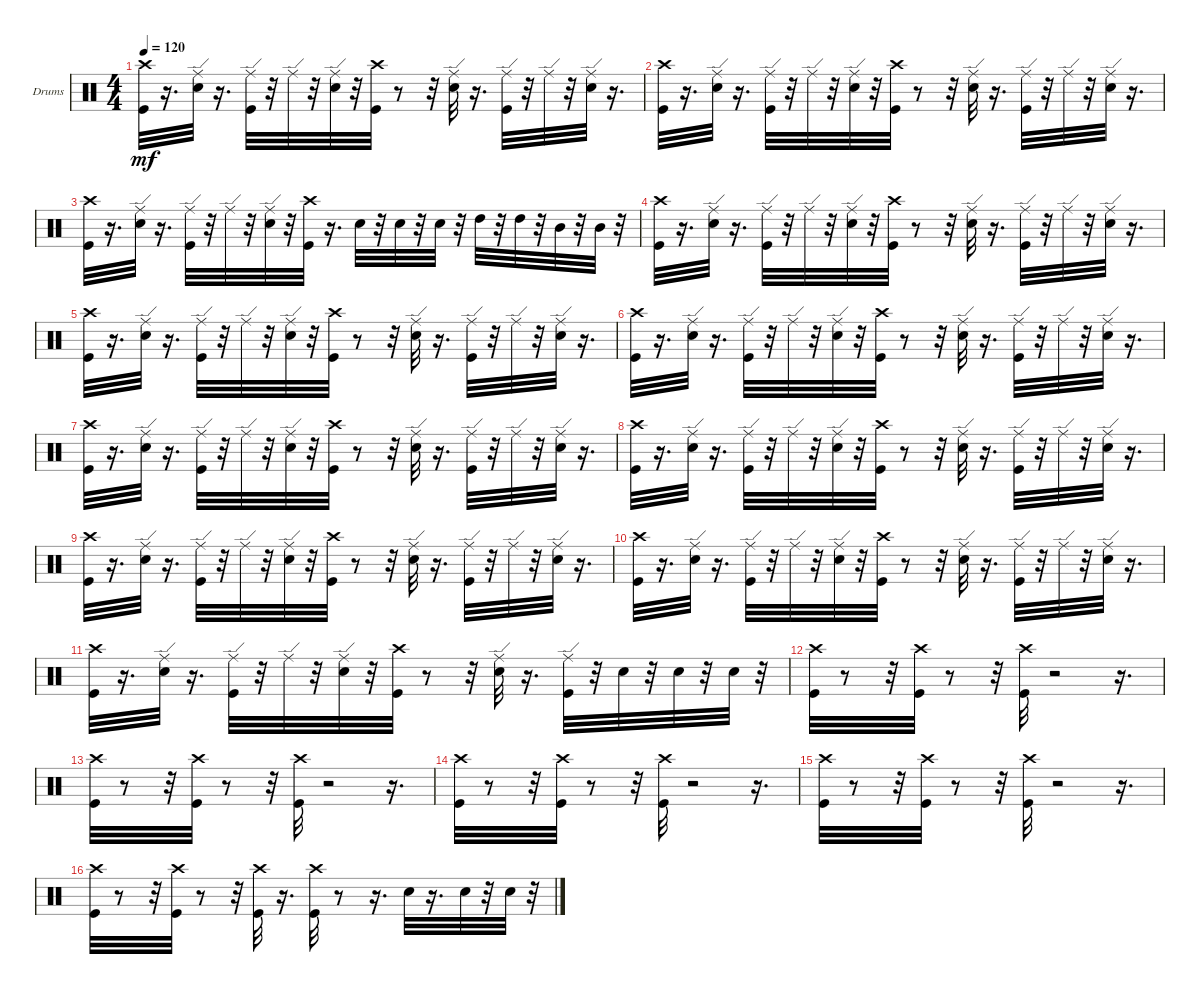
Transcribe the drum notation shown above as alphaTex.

\bracketExtendMode groupsimilarinstruments
\firstSystemTrackNameOrientation horizontal
\otherSystemsTrackNameOrientation horizontal
\track ("" "Drums") {instrument percussion}
\staff {score}
\articulation defaults
\ts (4 4)
\tempo 120
\clef neutral
\ks c
("Crash high (hit)" "Kick (hit)").32{dy mf} r.16{d} ("Snare (hit) 2" "Ride (edge)").32 r.16{d} ("Kick (hit)" "Ride (edge)").32 r.32 "Ride (edge)".32 r.32 ("Ride (edge)" "Snare (hit) 2").32 r.32 ("Crash high (hit)" "Kick (hit)").32 r.8 r.32 ("Snare (hit) 2" "Ride (edge)").32 r.16{d} ("Kick (hit)" "Ride (edge)").32 r.32 "Ride (edge)".32 r.32 ("Snare (hit) 2" "Ride (edge)").32 r.16{d} |
("Crash high (hit)" "Kick (hit)").32 r.16{d} ("Snare (hit) 2" "Ride (edge)").32 r.16{d} ("Kick (hit)" "Ride (edge)").32 r.32 "Ride (edge)".32 r.32 ("Ride (edge)" "Snare (hit) 2").32 r.32 ("Crash high (hit)" "Kick (hit)").32 r.8 r.32 ("Snare (hit) 2" "Ride (edge)").32 r.16{d} ("Kick (hit)" "Ride (edge)").32 r.32 "Ride (edge)".32 r.32 ("Snare (hit) 2" "Ride (edge)").32 r.16{d} |
("Crash high (hit)" "Kick (hit)").32 r.16{d} ("Snare (hit) 2" "Ride (edge)").32 r.16{d} ("Kick (hit)" "Ride (edge)").32 r.32 "Ride (edge)".32 r.32 ("Ride (edge)" "Snare (hit) 2").32 r.32 ("Crash high (hit)" "Kick (hit)").32 r.16{d} "Snare (hit) 2".32 r.32 "Snare (hit) 2".32 r.32 "Snare (hit) 2".32 r.32 "High Tom (hit)".32 r.32 "High Tom (hit)".32 r.32 "Mid Tom (hit)".32 r.32 "Mid Tom (hit)".32 r.32 |
("Crash high (hit)" "Kick (hit)").32 r.16{d} ("Snare (hit) 2" "Ride (edge)").32 r.16{d} ("Kick (hit)" "Ride (edge)").32 r.32 "Ride (edge)".32 r.32 ("Ride (edge)" "Snare (hit) 2").32 r.32 ("Crash high (hit)" "Kick (hit)").32 r.8 r.32 ("Snare (hit) 2" "Ride (edge)").32 r.16{d} ("Kick (hit)" "Ride (edge)").32 r.32 "Ride (edge)".32 r.32 ("Snare (hit) 2" "Ride (edge)").32 r.16{d} |
("Crash high (hit)" "Kick (hit)").32 r.16{d} ("Snare (hit) 2" "Ride (edge)").32 r.16{d} ("Kick (hit)" "Ride (edge)").32 r.32 "Ride (edge)".32 r.32 ("Ride (edge)" "Snare (hit) 2").32 r.32 ("Crash high (hit)" "Kick (hit)").32 r.8 r.32 ("Snare (hit) 2" "Ride (edge)").32 r.16{d} ("Kick (hit)" "Ride (edge)").32 r.32 "Ride (edge)".32 r.32 ("Snare (hit) 2" "Ride (edge)").32 r.16{d} |
("Crash high (hit)" "Kick (hit)").32 r.16{d} ("Snare (hit) 2" "Ride (edge)").32 r.16{d} ("Kick (hit)" "Ride (edge)").32 r.32 "Ride (edge)".32 r.32 ("Ride (edge)" "Snare (hit) 2").32 r.32 ("Crash high (hit)" "Kick (hit)").32 r.8 r.32 ("Snare (hit) 2" "Ride (edge)").32 r.16{d} ("Kick (hit)" "Ride (edge)").32 r.32 "Ride (edge)".32 r.32 ("Snare (hit) 2" "Ride (edge)").32 r.16{d} |
("Crash high (hit)" "Kick (hit)").32 r.16{d} ("Snare (hit) 2" "Ride (edge)").32 r.16{d} ("Kick (hit)" "Ride (edge)").32 r.32 "Ride (edge)".32 r.32 ("Ride (edge)" "Snare (hit) 2").32 r.32 ("Crash high (hit)" "Kick (hit)").32 r.8 r.32 ("Snare (hit) 2" "Ride (edge)").32 r.16{d} ("Kick (hit)" "Ride (edge)").32 r.32 "Ride (edge)".32 r.32 ("Snare (hit) 2" "Ride (edge)").32 r.16{d} |
("Crash high (hit)" "Kick (hit)").32 r.16{d} ("Snare (hit) 2" "Ride (edge)").32 r.16{d} ("Kick (hit)" "Ride (edge)").32 r.32 "Ride (edge)".32 r.32 ("Ride (edge)" "Snare (hit) 2").32 r.32 ("Crash high (hit)" "Kick (hit)").32 r.8 r.32 ("Snare (hit) 2" "Ride (edge)").32 r.16{d} ("Kick (hit)" "Ride (edge)").32 r.32 "Ride (edge)".32 r.32 ("Snare (hit) 2" "Ride (edge)").32 r.16{d} |
("Crash high (hit)" "Kick (hit)").32 r.16{d} ("Snare (hit) 2" "Ride (edge)").32 r.16{d} ("Kick (hit)" "Ride (edge)").32 r.32 "Ride (edge)".32 r.32 ("Ride (edge)" "Snare (hit) 2").32 r.32 ("Crash high (hit)" "Kick (hit)").32 r.8 r.32 ("Snare (hit) 2" "Ride (edge)").32 r.16{d} ("Kick (hit)" "Ride (edge)").32 r.32 "Ride (edge)".32 r.32 ("Snare (hit) 2" "Ride (edge)").32 r.16{d} |
("Crash high (hit)" "Kick (hit)").32 r.16{d} ("Snare (hit) 2" "Ride (edge)").32 r.16{d} ("Kick (hit)" "Ride (edge)").32 r.32 "Ride (edge)".32 r.32 ("Ride (edge)" "Snare (hit) 2").32 r.32 ("Crash high (hit)" "Kick (hit)").32 r.8 r.32 ("Snare (hit) 2" "Ride (edge)").32 r.16{d} ("Kick (hit)" "Ride (edge)").32 r.32 "Ride (edge)".32 r.32 ("Snare (hit) 2" "Ride (edge)").32 r.16{d} |
("Crash high (hit)" "Kick (hit)").32 r.16{d} ("Snare (hit) 2" "Ride (edge)").32 r.16{d} ("Kick (hit)" "Ride (edge)").32 r.32 "Ride (edge)".32 r.32 ("Ride (edge)" "Snare (hit) 2").32 r.32 ("Crash high (hit)" "Kick (hit)").32 r.8 r.32 ("Ride (edge)" "Snare (hit) 2").32 r.16{d} ("Kick (hit)" "Ride (edge)").32 r.32 "Snare (hit) 2".32 r.32 "Snare (hit) 2".32 r.32 "Snare (hit) 2".32 r.32 |
("Crash high (hit)" "Kick (hit)").32 r.8 r.32 ("Crash high (hit)" "Kick (hit)").32 r.8 r.32 ("Crash high (hit)" "Kick (hit)").32 r.2 r.16{d} |
("Crash high (hit)" "Kick (hit)").32 r.8 r.32 ("Crash high (hit)" "Kick (hit)").32 r.8 r.32 ("Crash high (hit)" "Kick (hit)").32 r.2 r.16{d} |
("Crash high (hit)" "Kick (hit)").32 r.8 r.32 ("Crash high (hit)" "Kick (hit)").32 r.8 r.32 ("Crash high (hit)" "Kick (hit)").32 r.2 r.16{d} |
("Crash high (hit)" "Kick (hit)").32 r.8 r.32 ("Crash high (hit)" "Kick (hit)").32 r.8 r.32 ("Crash high (hit)" "Kick (hit)").32 r.2 r.16{d} |
("Crash high (hit)" "Kick (hit)").32 r.8 r.32 ("Crash high (hit)" "Kick (hit)").32 r.8 r.32 ("Crash high (hit)" "Kick (hit)").32 r.16{d} ("Crash high (hit)" "Kick (hit)").32 r.8 r.16{d} "Snare (hit) 2".32 r.16{d} "Snare (hit) 2".32 r.32 "Snare (hit) 2".32 r.32
